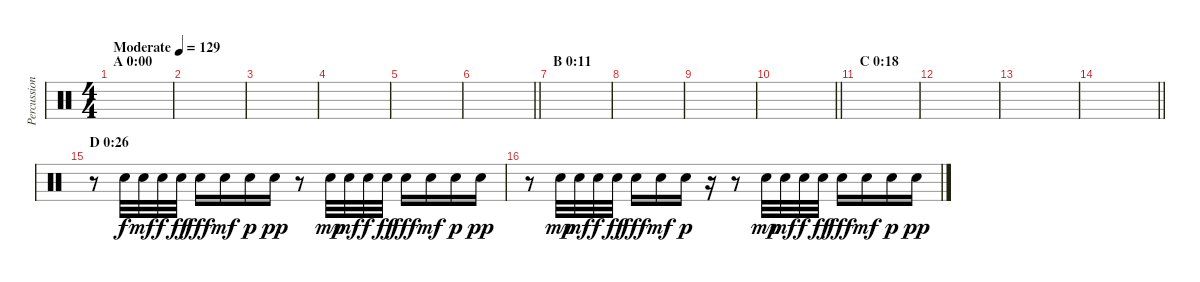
\track ("Percussion" "Percussion") {instrument percussion}
\staff {score}
\articulation defaults
\ts (4 4)
\section ("" "A 0:00")
\tempo (129 "Moderate")
\clef neutral
\ks c
|
|
|
|
|
\barLineRight lightlight
|
\section ("" "B 0:11")
|
|
|
\barLineRight lightlight
|
\section ("" "C 0:18")
|
|
|
\barLineRight lightlight
|
\section ("" "D 0:26")
r.8 "Electric Snare (hit)".32 "Electric Snare (hit)".32{dy mf} "Electric Snare (hit)".32{dy f} "Electric Snare (hit)".32{dy ff} "Electric Snare (hit)".16{dy fff} "Electric Snare (hit)".16{dy mf} "Electric Snare (hit)".16{dy p} "Electric Snare (hit)".16{dy pp} r.8 "Electric Snare (hit)".32{dy mp} "Electric Snare (hit)".32{dy mf} "Electric Snare (hit)".32{dy f} "Electric Snare (hit)".32{dy ff} "Electric Snare (hit)".16{dy fff} "Electric Snare (hit)".16{dy mf} "Electric Snare (hit)".16{dy p} "Electric Snare (hit)".16{dy pp} |
r.8 "Electric Snare (hit)".32{dy mp} "Electric Snare (hit)".32{dy mf} "Electric Snare (hit)".32{dy f} "Electric Snare (hit)".32{dy ff} "Electric Snare (hit)".16{dy fff} "Electric Snare (hit)".16{dy mf} "Electric Snare (hit)".16{dy p} r.16 r.8 "Electric Snare (hit)".32{dy mp} "Electric Snare (hit)".32{dy mf} "Electric Snare (hit)".32{dy f} "Electric Snare (hit)".32{dy ff} "Electric Snare (hit)".16{dy fff} "Electric Snare (hit)".16{dy mf} "Electric Snare (hit)".16{dy p} "Electric Snare (hit)".16{dy pp}
